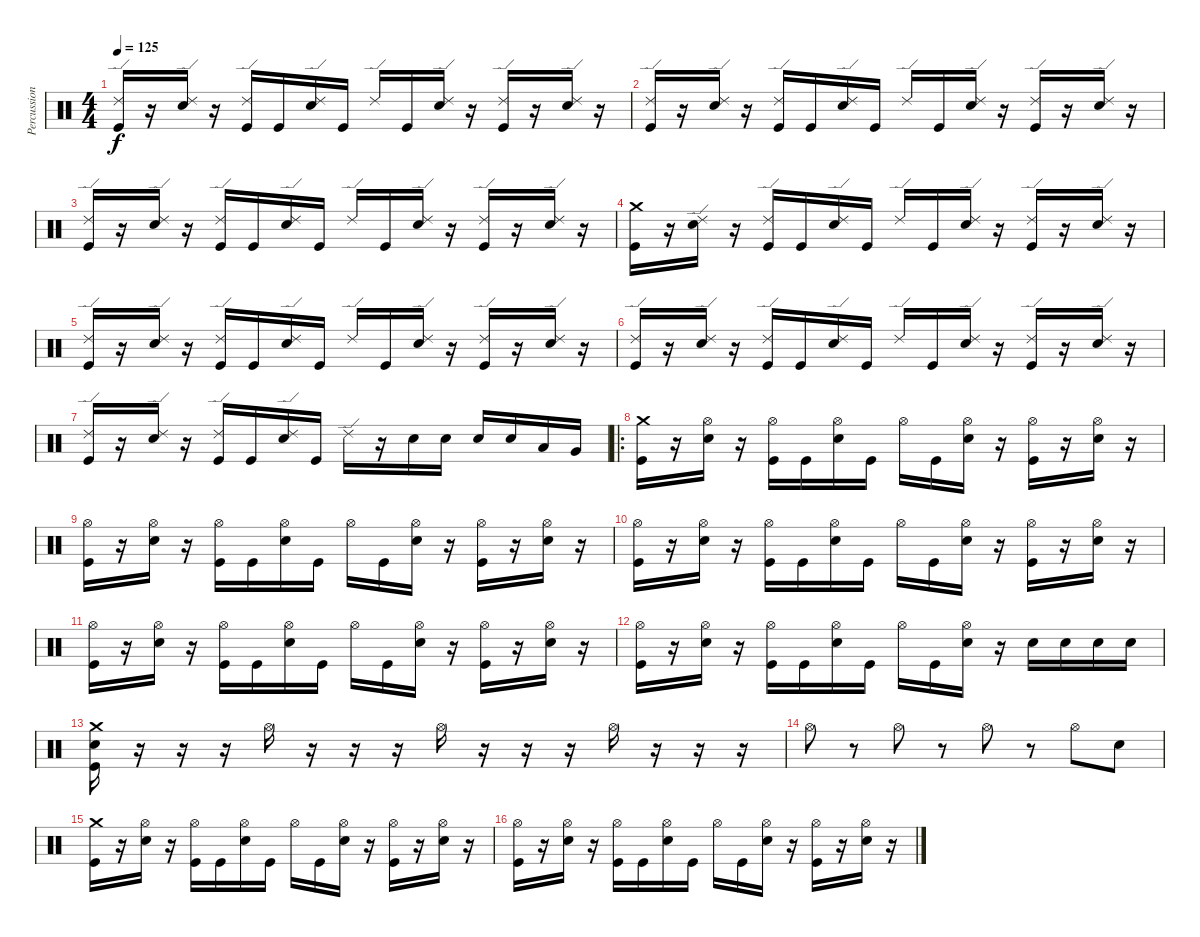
\track ("Percussion" "Percussion") {instrument percussion}
\staff {score}
\articulation defaults
\ts (4 4)
\tempo 125
\clef neutral
\ks c
("Ride (edge) 2" "Kick (hit)").16{dy f} r.16 ("Ride (edge) 2" "Snare (hit) 2").16 r.16 ("Ride (edge) 2" "Kick (hit)").16 "Kick (hit)".16 ("Ride (edge) 2" "Snare (hit) 2").16 "Kick (hit)".16 "Ride (edge) 2".16 "Kick (hit)".16 ("Ride (edge) 2" "Snare (hit) 2").16 r.16 ("Ride (edge) 2" "Kick (hit)").16 r.16 ("Ride (edge) 2" "Snare (hit) 2").16 r.16 |
("Ride (edge) 2" "Kick (hit)").16 r.16 ("Ride (edge) 2" "Snare (hit) 2").16 r.16 ("Ride (edge) 2" "Kick (hit)").16 "Kick (hit)".16 ("Ride (edge) 2" "Snare (hit) 2").16 "Kick (hit)".16 "Ride (edge) 2".16 "Kick (hit)".16 ("Ride (edge) 2" "Snare (hit) 2").16 r.16 ("Ride (edge) 2" "Kick (hit)").16 r.16 ("Ride (edge) 2" "Snare (hit) 2").16 r.16 |
("Ride (edge) 2" "Kick (hit)").16 r.16 ("Ride (edge) 2" "Snare (hit) 2").16 r.16 ("Ride (edge) 2" "Kick (hit)").16 "Kick (hit)".16 ("Ride (edge) 2" "Snare (hit) 2").16 "Kick (hit)".16 "Ride (edge) 2".16 "Kick (hit)".16 ("Ride (edge) 2" "Snare (hit) 2").16 r.16 ("Ride (edge) 2" "Kick (hit)").16 r.16 ("Ride (edge) 2" "Snare (hit) 2").16 r.16 |
("Crash medium (hit)" "Kick (hit)").16 r.16 ("Ride (edge) 2" "Snare (hit) 2").16 r.16 ("Ride (edge) 2" "Kick (hit)").16 "Kick (hit)".16 ("Ride (edge) 2" "Snare (hit) 2").16 "Kick (hit)".16 "Ride (edge) 2".16 "Kick (hit)".16 ("Ride (edge) 2" "Snare (hit) 2").16 r.16 ("Ride (edge) 2" "Kick (hit)").16 r.16 ("Ride (edge) 2" "Snare (hit) 2").16 r.16 |
("Ride (edge) 2" "Kick (hit)").16 r.16 ("Ride (edge) 2" "Snare (hit) 2").16 r.16 ("Ride (edge) 2" "Kick (hit)").16 "Kick (hit)".16 ("Ride (edge) 2" "Snare (hit) 2").16 "Kick (hit)".16 "Ride (edge) 2".16 "Kick (hit)".16 ("Ride (edge) 2" "Snare (hit) 2").16 r.16 ("Ride (edge) 2" "Kick (hit)").16 r.16 ("Ride (edge) 2" "Snare (hit) 2").16 r.16 |
("Ride (edge) 2" "Kick (hit)").16 r.16 ("Ride (edge) 2" "Snare (hit) 2").16 r.16 ("Ride (edge) 2" "Kick (hit)").16 "Kick (hit)".16 ("Ride (edge) 2" "Snare (hit) 2").16 "Kick (hit)".16 "Ride (edge) 2".16 "Kick (hit)".16 ("Ride (edge) 2" "Snare (hit) 2").16 r.16 ("Ride (edge) 2" "Kick (hit)").16 r.16 ("Ride (edge) 2" "Snare (hit) 2").16 r.16 |
("Ride (edge) 2" "Kick (hit)").16 r.16 ("Ride (edge) 2" "Snare (hit) 2").16 r.16 ("Ride (edge) 2" "Kick (hit)").16 "Kick (hit)".16 ("Ride (edge) 2" "Snare (hit) 2").16 "Kick (hit)".16 "Ride (edge) 2".16 r.16 "Snare (hit) 2".16 "Snare (hit) 2".16 "Snare (hit) 2".16 "Snare (hit) 2".16 "Low Tom (hit)".16 "Very Low Tom (hit)".16 |
\ro
("Crash medium (hit)" "Kick (hit)").16 r.16 ("Hi-Hat (open)" "Snare (hit) 2").16 r.16 ("Hi-Hat (open)" "Kick (hit)").16 "Kick (hit)".16 ("Hi-Hat (open)" "Snare (hit) 2").16 "Kick (hit)".16 "Hi-Hat (open)".16 "Kick (hit)".16 ("Hi-Hat (open)" "Snare (hit) 2").16 r.16 ("Hi-Hat (open)" "Kick (hit)").16 r.16 ("Hi-Hat (open)" "Snare (hit) 2").16 r.16 |
("Hi-Hat (open)" "Kick (hit)").16 r.16 ("Hi-Hat (open)" "Snare (hit) 2").16 r.16 ("Hi-Hat (open)" "Kick (hit)").16 "Kick (hit)".16 ("Hi-Hat (open)" "Snare (hit) 2").16 "Kick (hit)".16 "Hi-Hat (open)".16 "Kick (hit)".16 ("Hi-Hat (open)" "Snare (hit) 2").16 r.16 ("Hi-Hat (open)" "Kick (hit)").16 r.16 ("Hi-Hat (open)" "Snare (hit) 2").16 r.16 |
("Hi-Hat (open)" "Kick (hit)").16 r.16 ("Hi-Hat (open)" "Snare (hit) 2").16 r.16 ("Hi-Hat (open)" "Kick (hit)").16 "Kick (hit)".16 ("Hi-Hat (open)" "Snare (hit) 2").16 "Kick (hit)".16 "Hi-Hat (open)".16 "Kick (hit)".16 ("Hi-Hat (open)" "Snare (hit) 2").16 r.16 ("Hi-Hat (open)" "Kick (hit)").16 r.16 ("Hi-Hat (open)" "Snare (hit) 2").16 r.16 |
("Hi-Hat (open)" "Kick (hit)").16 r.16 ("Hi-Hat (open)" "Snare (hit) 2").16 r.16 ("Hi-Hat (open)" "Kick (hit)").16 "Kick (hit)".16 ("Hi-Hat (open)" "Snare (hit) 2").16 "Kick (hit)".16 "Hi-Hat (open)".16 "Kick (hit)".16 ("Hi-Hat (open)" "Snare (hit) 2").16 r.16 ("Hi-Hat (open)" "Kick (hit)").16 r.16 ("Hi-Hat (open)" "Snare (hit) 2").16 r.16 |
("Hi-Hat (open)" "Kick (hit)").16 r.16 ("Hi-Hat (open)" "Snare (hit) 2").16 r.16 ("Hi-Hat (open)" "Kick (hit)").16 "Kick (hit)".16 ("Hi-Hat (open)" "Snare (hit) 2").16 "Kick (hit)".16 "Hi-Hat (open)".16 "Kick (hit)".16 ("Hi-Hat (open)" "Snare (hit) 2").16 r.16 "Snare (hit) 2".16 "Snare (hit) 2".16 "Snare (hit) 2".16 "Snare (hit) 2".16 |
("Crash medium (hit)" "Snare (hit) 2" "Kick (hit)").16 r.16 r.16 r.16 "Hi-Hat (open)".16 r.16 r.16 r.16 "Hi-Hat (open)".16 r.16 r.16 r.16 "Hi-Hat (open)".16 r.16 r.16 r.16 |
"Hi-Hat (open)".8 r.8 "Hi-Hat (open)".8 r.8 "Hi-Hat (open)".8 r.8 "Hi-Hat (open)".8 "Snare (hit) 2".8 |
("Crash medium (hit)" "Kick (hit)").16 r.16 ("Hi-Hat (open)" "Snare (hit) 2").16 r.16 ("Hi-Hat (open)" "Kick (hit)").16 "Kick (hit)".16 ("Hi-Hat (open)" "Snare (hit) 2").16 "Kick (hit)".16 "Hi-Hat (open)".16 "Kick (hit)".16 ("Hi-Hat (open)" "Snare (hit) 2").16 r.16 ("Hi-Hat (open)" "Kick (hit)").16 r.16 ("Hi-Hat (open)" "Snare (hit) 2").16 r.16 |
("Hi-Hat (open)" "Kick (hit)").16 r.16 ("Hi-Hat (open)" "Snare (hit) 2").16 r.16 ("Hi-Hat (open)" "Kick (hit)").16 "Kick (hit)".16 ("Hi-Hat (open)" "Snare (hit) 2").16 "Kick (hit)".16 "Hi-Hat (open)".16 "Kick (hit)".16 ("Hi-Hat (open)" "Snare (hit) 2").16 r.16 ("Hi-Hat (open)" "Kick (hit)").16 r.16 ("Hi-Hat (open)" "Snare (hit) 2").16 r.16
